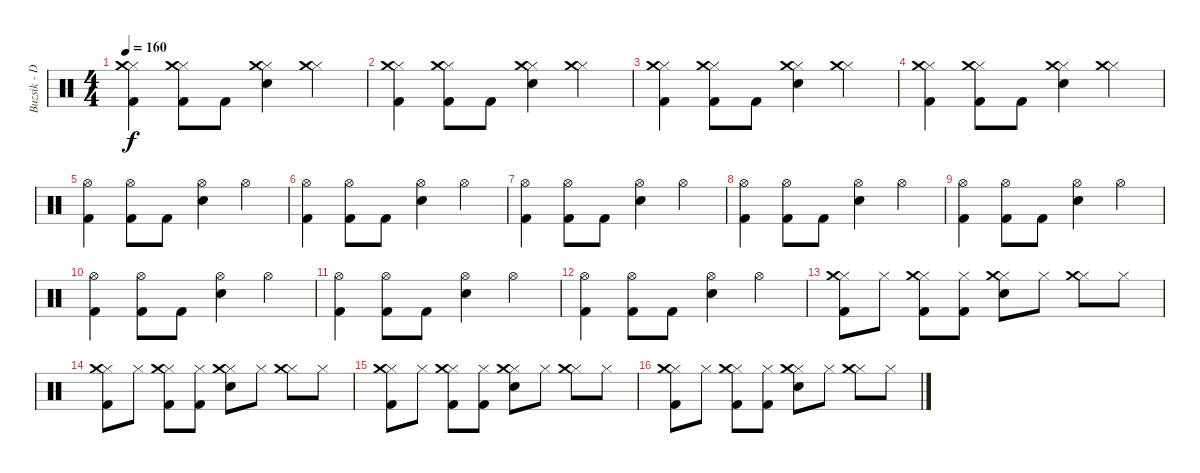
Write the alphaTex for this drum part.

\track ("Buzsik - Dob" "Buzsik - D") {instrument percussion}
\staff {score}
\articulation defaults
\ts (4 4)
\tempo 160
\clef neutral
\ks c
("Hi-Hat (closed)" "Crash medium (hit)" "Kick (hit) 2").4{dy f} ("Hi-Hat (closed)" "Crash medium (hit)" "Kick (hit) 2").8 "Kick (hit) 2".8 ("Hi-Hat (closed)" "Crash medium (hit)" "Electric Snare (hit)").4 ("Hi-Hat (closed)" "Crash medium (hit)").4 |
("Hi-Hat (closed)" "Crash medium (hit)" "Kick (hit) 2").4 ("Hi-Hat (closed)" "Crash medium (hit)" "Kick (hit) 2").8 "Kick (hit) 2".8 ("Hi-Hat (closed)" "Crash medium (hit)" "Electric Snare (hit)").4 ("Hi-Hat (closed)" "Crash medium (hit)").4 |
("Hi-Hat (closed)" "Crash medium (hit)" "Kick (hit) 2").4 ("Hi-Hat (closed)" "Crash medium (hit)" "Kick (hit) 2").8 "Kick (hit) 2".8 ("Hi-Hat (closed)" "Crash medium (hit)" "Electric Snare (hit)").4 ("Hi-Hat (closed)" "Crash medium (hit)").4 |
("Hi-Hat (closed)" "Crash medium (hit)" "Kick (hit) 2").4 ("Hi-Hat (closed)" "Crash medium (hit)" "Kick (hit) 2").8 "Kick (hit) 2".8 ("Hi-Hat (closed)" "Crash medium (hit)" "Electric Snare (hit)").4 ("Hi-Hat (closed)" "Crash medium (hit)").4 |
("Hi-Hat (open)" "Kick (hit) 2").4 ("Hi-Hat (open)" "Kick (hit) 2").8 "Kick (hit) 2".8 ("Hi-Hat (open)" "Electric Snare (hit)").4 "Hi-Hat (open)".4 |
("Hi-Hat (open)" "Kick (hit) 2").4 ("Hi-Hat (open)" "Kick (hit) 2").8 "Kick (hit) 2".8 ("Hi-Hat (open)" "Electric Snare (hit)").4 "Hi-Hat (open)".4 |
("Hi-Hat (open)" "Kick (hit) 2").4 ("Hi-Hat (open)" "Kick (hit) 2").8 "Kick (hit) 2".8 ("Hi-Hat (open)" "Electric Snare (hit)").4 "Hi-Hat (open)".4 |
("Hi-Hat (open)" "Kick (hit) 2").4 ("Hi-Hat (open)" "Kick (hit) 2").8 "Kick (hit) 2".8 ("Hi-Hat (open)" "Electric Snare (hit)").4 "Hi-Hat (open)".4 |
("Hi-Hat (open)" "Kick (hit) 2").4 ("Hi-Hat (open)" "Kick (hit) 2").8 "Kick (hit) 2".8 ("Hi-Hat (open)" "Electric Snare (hit)").4 "Hi-Hat (open)".4 |
("Hi-Hat (open)" "Kick (hit) 2").4 ("Hi-Hat (open)" "Kick (hit) 2").8 "Kick (hit) 2".8 ("Hi-Hat (open)" "Electric Snare (hit)").4 "Hi-Hat (open)".4 |
("Hi-Hat (open)" "Kick (hit) 2").4 ("Hi-Hat (open)" "Kick (hit) 2").8 "Kick (hit) 2".8 ("Hi-Hat (open)" "Electric Snare (hit)").4 "Hi-Hat (open)".4 |
("Hi-Hat (open)" "Kick (hit) 2").4 ("Hi-Hat (open)" "Kick (hit) 2").8 "Kick (hit) 2".8 ("Hi-Hat (open)" "Electric Snare (hit)").4 "Hi-Hat (open)".4 |
("Hi-Hat (closed)" "Crash medium (hit)" "Kick (hit) 2").8 "Hi-Hat (closed)".8 ("Hi-Hat (closed)" "Crash medium (hit)" "Kick (hit) 2").8 ("Hi-Hat (closed)" "Kick (hit) 2").8 ("Hi-Hat (closed)" "Crash medium (hit)" "Electric Snare (hit)").8 "Hi-Hat (closed)".8 ("Hi-Hat (closed)" "Crash medium (hit)").8 "Hi-Hat (closed)".8 |
("Hi-Hat (closed)" "Crash medium (hit)" "Kick (hit) 2").8 "Hi-Hat (closed)".8 ("Hi-Hat (closed)" "Crash medium (hit)" "Kick (hit) 2").8 ("Hi-Hat (closed)" "Kick (hit) 2").8 ("Hi-Hat (closed)" "Crash medium (hit)" "Electric Snare (hit)").8 "Hi-Hat (closed)".8 ("Hi-Hat (closed)" "Crash medium (hit)").8 "Hi-Hat (closed)".8 |
("Hi-Hat (closed)" "Crash medium (hit)" "Kick (hit) 2").8 "Hi-Hat (closed)".8 ("Hi-Hat (closed)" "Crash medium (hit)" "Kick (hit) 2").8 ("Hi-Hat (closed)" "Kick (hit) 2").8 ("Hi-Hat (closed)" "Crash medium (hit)" "Electric Snare (hit)").8 "Hi-Hat (closed)".8 ("Hi-Hat (closed)" "Crash medium (hit)").8 "Hi-Hat (closed)".8 |
("Hi-Hat (closed)" "Crash medium (hit)" "Kick (hit) 2").8 "Hi-Hat (closed)".8 ("Hi-Hat (closed)" "Crash medium (hit)" "Kick (hit) 2").8 ("Hi-Hat (closed)" "Kick (hit) 2").8 ("Hi-Hat (closed)" "Crash medium (hit)" "Electric Snare (hit)").8 "Hi-Hat (closed)".8 ("Hi-Hat (closed)" "Crash medium (hit)").8 "Hi-Hat (closed)".8
